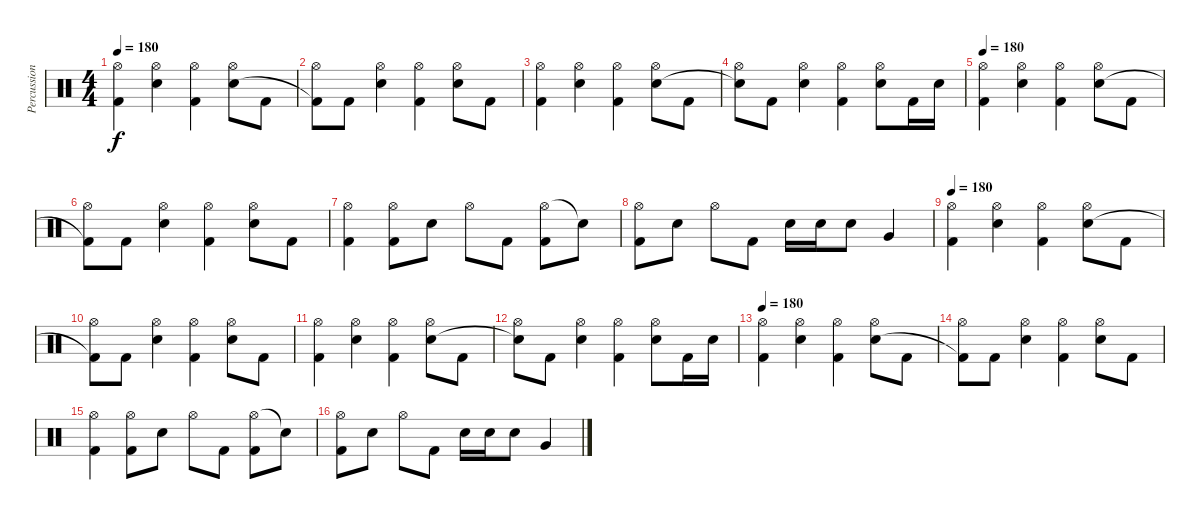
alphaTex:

\track ("Percussions" "Percussion") {instrument percussion}
\staff {score}
\articulation defaults
\ts (4 4)
\tempo 180
\clef neutral
\ks c
("Hi-Hat (open)" "Kick (hit) 2").4{dy f} ("Hi-Hat (open)" "Electric Snare (hit)").4 ("Hi-Hat (open)" "Kick (hit) 2").4 ("Hi-Hat (open)" "Electric Snare (hit)").8 "Kick (hit) 2".8 |
("Hi-Hat (open)" "Kick (hit) 2"{t}).8 "Kick (hit) 2".8 ("Hi-Hat (open)" "Electric Snare (hit)").4 ("Hi-Hat (open)" "Kick (hit) 2").4 ("Hi-Hat (open)" "Electric Snare (hit)").8 "Kick (hit) 2".8 |
("Hi-Hat (open)" "Kick (hit) 2").4 ("Hi-Hat (open)" "Electric Snare (hit)").4 ("Hi-Hat (open)" "Kick (hit) 2").4 ("Hi-Hat (open)" "Electric Snare (hit)").8 "Kick (hit) 2".8 |
("Hi-Hat (open)" "Snare (hit)"{t}).8 "Kick (hit) 2".8 ("Hi-Hat (open)" "Electric Snare (hit)").4 ("Hi-Hat (open)" "Kick (hit) 2").4 ("Hi-Hat (open)" "Electric Snare (hit)").8 "Kick (hit) 2".16 "Electric Snare (hit)".16 |
\tempo 180
("Hi-Hat (open)" "Kick (hit) 2").4 ("Hi-Hat (open)" "Electric Snare (hit)").4 ("Hi-Hat (open)" "Kick (hit) 2").4 ("Hi-Hat (open)" "Electric Snare (hit)").8 "Kick (hit) 2".8 |
("Hi-Hat (open)" "Kick (hit) 2"{t}).8 "Kick (hit) 2".8 ("Hi-Hat (open)" "Electric Snare (hit)").4 ("Hi-Hat (open)" "Kick (hit) 2").4 ("Hi-Hat (open)" "Electric Snare (hit)").8 "Kick (hit) 2".8 |
("Hi-Hat (open)" "Kick (hit) 2").4 ("Hi-Hat (open)" "Kick (hit) 2").8 "Electric Snare (hit)".8 "Hi-Hat (open)".8 "Kick (hit) 2".8 ("Hi-Hat (open)" "Kick (hit) 2").8 "Snare (hit)"{t}.8 |
("Hi-Hat (open)" "Kick (hit) 2").8 "Electric Snare (hit)".8 "Hi-Hat (open)".8 "Kick (hit) 2".8 "Electric Snare (hit)".16 "Electric Snare (hit)".16 "Electric Snare (hit)".8 "Very Low Tom (hit)".4 |
\tempo 180
("Hi-Hat (open)" "Kick (hit) 2").4 ("Hi-Hat (open)" "Electric Snare (hit)").4 ("Hi-Hat (open)" "Kick (hit) 2").4 ("Hi-Hat (open)" "Electric Snare (hit)").8 "Kick (hit) 2".8 |
("Hi-Hat (open)" "Kick (hit) 2"{t}).8 "Kick (hit) 2".8 ("Hi-Hat (open)" "Electric Snare (hit)").4 ("Hi-Hat (open)" "Kick (hit) 2").4 ("Hi-Hat (open)" "Electric Snare (hit)").8 "Kick (hit) 2".8 |
("Hi-Hat (open)" "Kick (hit) 2").4 ("Hi-Hat (open)" "Electric Snare (hit)").4 ("Hi-Hat (open)" "Kick (hit) 2").4 ("Hi-Hat (open)" "Electric Snare (hit)").8 "Kick (hit) 2".8 |
("Hi-Hat (open)" "Snare (hit)"{t}).8 "Kick (hit) 2".8 ("Hi-Hat (open)" "Electric Snare (hit)").4 ("Hi-Hat (open)" "Kick (hit) 2").4 ("Hi-Hat (open)" "Electric Snare (hit)").8 "Kick (hit) 2".16 "Electric Snare (hit)".16 |
\tempo 180
("Hi-Hat (open)" "Kick (hit) 2").4 ("Hi-Hat (open)" "Electric Snare (hit)").4 ("Hi-Hat (open)" "Kick (hit) 2").4 ("Hi-Hat (open)" "Electric Snare (hit)").8 "Kick (hit) 2".8 |
("Hi-Hat (open)" "Kick (hit) 2"{t}).8 "Kick (hit) 2".8 ("Hi-Hat (open)" "Electric Snare (hit)").4 ("Hi-Hat (open)" "Kick (hit) 2").4 ("Hi-Hat (open)" "Electric Snare (hit)").8 "Kick (hit) 2".8 |
("Hi-Hat (open)" "Kick (hit) 2").4 ("Hi-Hat (open)" "Kick (hit) 2").8 "Electric Snare (hit)".8 "Hi-Hat (open)".8 "Kick (hit) 2".8 ("Hi-Hat (open)" "Kick (hit) 2").8 "Snare (hit)"{t}.8 |
("Hi-Hat (open)" "Kick (hit) 2").8 "Electric Snare (hit)".8 "Hi-Hat (open)".8 "Kick (hit) 2".8 "Electric Snare (hit)".16 "Electric Snare (hit)".16 "Electric Snare (hit)".8 "Very Low Tom (hit)".4
